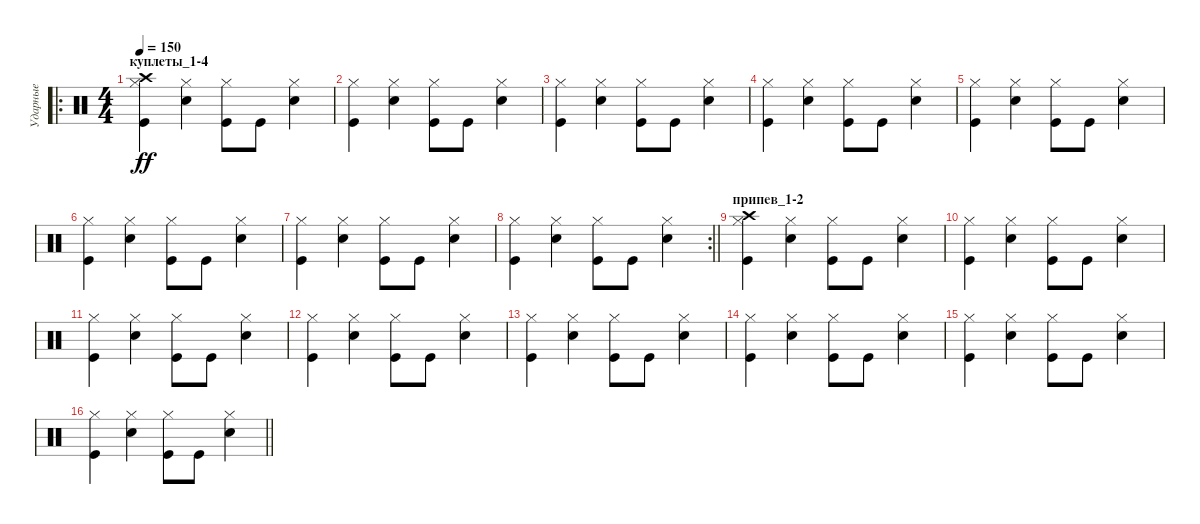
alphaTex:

\track ("Ударные" "Ударные") {instrument percussion}
\staff {score}
\articulation defaults
\ro
\ts (4 4)
\section ("" "куплеты_1-4")
\tempo 150
\clef neutral
\ks c
("Kick (hit)" "Hi-Hat (closed)" "Crash high (hit)").4{dy ff} ("Snare (hit) 2" "Hi-Hat (closed)").4 ("Kick (hit)" "Hi-Hat (closed)").8 "Kick (hit)".8 ("Snare (hit) 2" "Hi-Hat (closed)").4 |
("Kick (hit)" "Hi-Hat (closed)").4 ("Snare (hit) 2" "Hi-Hat (closed)").4 ("Kick (hit)" "Hi-Hat (closed)").8 "Kick (hit)".8 ("Snare (hit) 2" "Hi-Hat (closed)").4 |
("Kick (hit)" "Hi-Hat (closed)").4 ("Snare (hit) 2" "Hi-Hat (closed)").4 ("Kick (hit)" "Hi-Hat (closed)").8 "Kick (hit)".8 ("Snare (hit) 2" "Hi-Hat (closed)").4 |
("Kick (hit)" "Hi-Hat (closed)").4 ("Snare (hit) 2" "Hi-Hat (closed)").4 ("Kick (hit)" "Hi-Hat (closed)").8 "Kick (hit)".8 ("Snare (hit) 2" "Hi-Hat (closed)").4 |
("Kick (hit)" "Hi-Hat (closed)").4 ("Snare (hit) 2" "Hi-Hat (closed)").4 ("Kick (hit)" "Hi-Hat (closed)").8 "Kick (hit)".8 ("Snare (hit) 2" "Hi-Hat (closed)").4 |
("Kick (hit)" "Hi-Hat (closed)").4 ("Snare (hit) 2" "Hi-Hat (closed)").4 ("Kick (hit)" "Hi-Hat (closed)").8 "Kick (hit)".8 ("Snare (hit) 2" "Hi-Hat (closed)").4 |
("Kick (hit)" "Hi-Hat (closed)").4 ("Snare (hit) 2" "Hi-Hat (closed)").4 ("Kick (hit)" "Hi-Hat (closed)").8 "Kick (hit)".8 ("Snare (hit) 2" "Hi-Hat (closed)").4 |
\rc 2
\barLineRight lightlight
("Kick (hit)" "Hi-Hat (closed)").4 ("Snare (hit) 2" "Hi-Hat (closed)").4 ("Kick (hit)" "Hi-Hat (closed)").8 "Kick (hit)".8 ("Snare (hit) 2" "Hi-Hat (closed)").4 |
\section ("" "припев_1-2")
("Kick (hit)" "Hi-Hat (closed)" "Crash high (hit)").4 ("Snare (hit) 2" "Hi-Hat (closed)").4 ("Kick (hit)" "Hi-Hat (closed)").8 "Kick (hit)".8 ("Snare (hit) 2" "Hi-Hat (closed)").4 |
("Kick (hit)" "Hi-Hat (closed)").4 ("Snare (hit) 2" "Hi-Hat (closed)").4 ("Kick (hit)" "Hi-Hat (closed)").8 "Kick (hit)".8 ("Snare (hit) 2" "Hi-Hat (closed)").4 |
("Kick (hit)" "Hi-Hat (closed)").4 ("Snare (hit) 2" "Hi-Hat (closed)").4 ("Kick (hit)" "Hi-Hat (closed)").8 "Kick (hit)".8 ("Snare (hit) 2" "Hi-Hat (closed)").4 |
("Kick (hit)" "Hi-Hat (closed)").4 ("Snare (hit) 2" "Hi-Hat (closed)").4 ("Kick (hit)" "Hi-Hat (closed)").8 "Kick (hit)".8 ("Snare (hit) 2" "Hi-Hat (closed)").4 |
("Kick (hit)" "Hi-Hat (closed)").4 ("Snare (hit) 2" "Hi-Hat (closed)").4 ("Kick (hit)" "Hi-Hat (closed)").8 "Kick (hit)".8 ("Snare (hit) 2" "Hi-Hat (closed)").4 |
("Kick (hit)" "Hi-Hat (closed)").4 ("Snare (hit) 2" "Hi-Hat (closed)").4 ("Kick (hit)" "Hi-Hat (closed)").8 "Kick (hit)".8 ("Snare (hit) 2" "Hi-Hat (closed)").4 |
("Kick (hit)" "Hi-Hat (closed)").4 ("Snare (hit) 2" "Hi-Hat (closed)").4 ("Kick (hit)" "Hi-Hat (closed)").8 "Kick (hit)".8 ("Snare (hit) 2" "Hi-Hat (closed)").4 |
\barLineRight lightlight
("Kick (hit)" "Hi-Hat (closed)").4 ("Snare (hit) 2" "Hi-Hat (closed)").4 ("Kick (hit)" "Hi-Hat (closed)").8 "Kick (hit)".8 ("Snare (hit) 2" "Hi-Hat (closed)").4
